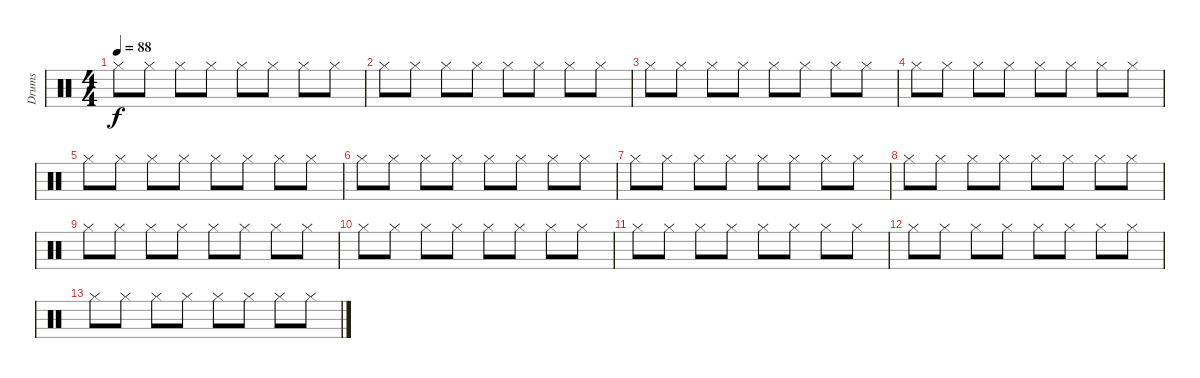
\track ("Drums" "Drums") {instrument percussion}
\staff {score}
\articulation defaults
\ts (4 4)
\tempo 88
\clef neutral
\ks c "Hi-Hat (closed)".8{dy f} "Hi-Hat (closed)".8 "Hi-Hat (closed)".8 "Hi-Hat (closed)".8 "Hi-Hat (closed)".8 "Hi-Hat (closed)".8 "Hi-Hat (closed)".8 "Hi-Hat (closed)".8
|
"Hi-Hat (closed)".8 "Hi-Hat (closed)".8 "Hi-Hat (closed)".8 "Hi-Hat (closed)".8 "Hi-Hat (closed)".8 "Hi-Hat (closed)".8 "Hi-Hat (closed)".8 "Hi-Hat (closed)".8 |
"Hi-Hat (closed)".8 "Hi-Hat (closed)".8 "Hi-Hat (closed)".8 "Hi-Hat (closed)".8 "Hi-Hat (closed)".8 "Hi-Hat (closed)".8 "Hi-Hat (closed)".8 "Hi-Hat (closed)".8 |
"Hi-Hat (closed)".8 "Hi-Hat (closed)".8 "Hi-Hat (closed)".8 "Hi-Hat (closed)".8 "Hi-Hat (closed)".8 "Hi-Hat (closed)".8 "Hi-Hat (closed)".8 "Hi-Hat (closed)".8 |
"Hi-Hat (closed)".8 "Hi-Hat (closed)".8 "Hi-Hat (closed)".8 "Hi-Hat (closed)".8 "Hi-Hat (closed)".8 "Hi-Hat (closed)".8 "Hi-Hat (closed)".8 "Hi-Hat (closed)".8 |
"Hi-Hat (closed)".8 "Hi-Hat (closed)".8 "Hi-Hat (closed)".8 "Hi-Hat (closed)".8 "Hi-Hat (closed)".8 "Hi-Hat (closed)".8 "Hi-Hat (closed)".8 "Hi-Hat (closed)".8 |
"Hi-Hat (closed)".8 "Hi-Hat (closed)".8 "Hi-Hat (closed)".8 "Hi-Hat (closed)".8 "Hi-Hat (closed)".8 "Hi-Hat (closed)".8 "Hi-Hat (closed)".8 "Hi-Hat (closed)".8 |
"Hi-Hat (closed)".8 "Hi-Hat (closed)".8 "Hi-Hat (closed)".8 "Hi-Hat (closed)".8 "Hi-Hat (closed)".8 "Hi-Hat (closed)".8 "Hi-Hat (closed)".8 "Hi-Hat (closed)".8 |
"Hi-Hat (closed)".8 "Hi-Hat (closed)".8 "Hi-Hat (closed)".8 "Hi-Hat (closed)".8 "Hi-Hat (closed)".8 "Hi-Hat (closed)".8 "Hi-Hat (closed)".8 "Hi-Hat (closed)".8 |
"Hi-Hat (closed)".8{volume 7} "Hi-Hat (closed)".8 "Hi-Hat (closed)".8 "Hi-Hat (closed)".8 "Hi-Hat (closed)".8 "Hi-Hat (closed)".8 "Hi-Hat (closed)".8 "Hi-Hat (closed)".8 |
"Hi-Hat (closed)".8 "Hi-Hat (closed)".8 "Hi-Hat (closed)".8 "Hi-Hat (closed)".8 "Hi-Hat (closed)".8 "Hi-Hat (closed)".8 "Hi-Hat (closed)".8 "Hi-Hat (closed)".8 |
"Hi-Hat (closed)".8{volume 2} "Hi-Hat (closed)".8 "Hi-Hat (closed)".8 "Hi-Hat (closed)".8 "Hi-Hat (closed)".8 "Hi-Hat (closed)".8 "Hi-Hat (closed)".8 "Hi-Hat (closed)".8 |
"Hi-Hat (closed)".8 "Hi-Hat (closed)".8 "Hi-Hat (closed)".8 "Hi-Hat (closed)".8 "Hi-Hat (closed)".8 "Hi-Hat (closed)".8 "Hi-Hat (closed)".8 "Hi-Hat (closed)".8
